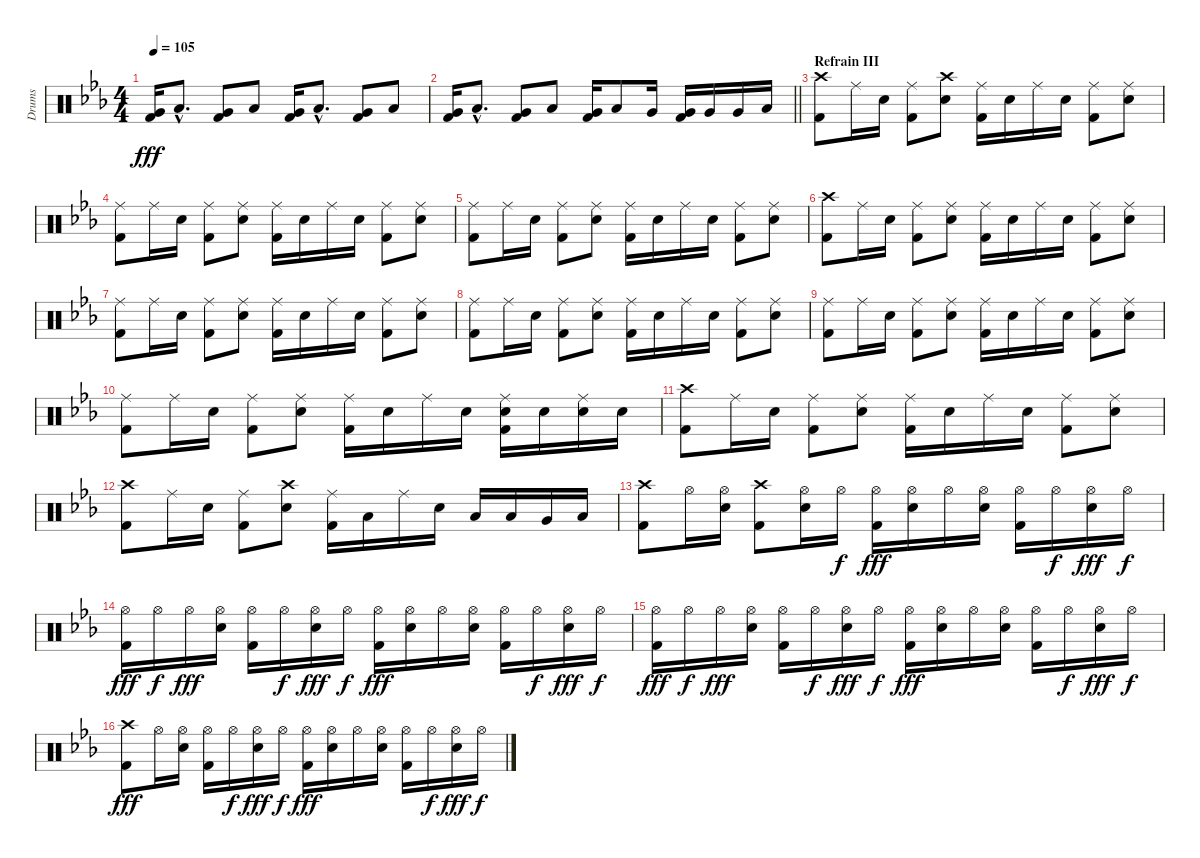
\track ("Drums" "Drums") {instrument percussion}
\staff {score}
\articulation defaults
\ts (4 4)
\tempo 105
\clef neutral
\ks eb
("Very Low Tom (hit)" "Kick (hit) 2").16{dy fff} "Low Floor Tom (hit)"{hac}.8{d} ("Very Low Tom (hit)" "Kick (hit) 2").8 "Low Floor Tom (hit)".8 ("Very Low Tom (hit)" "Kick (hit) 2").16 "Low Floor Tom (hit)"{hac}.8{d} ("Very Low Tom (hit)" "Kick (hit) 2").8 "Low Floor Tom (hit)".8 |
\barLineRight lightlight
("Very Low Tom (hit)" "Kick (hit) 2").16 "Low Floor Tom (hit)"{hac}.8{d} ("Very Low Tom (hit)" "Kick (hit) 2").8 "Low Floor Tom (hit)".8 ("Very Low Tom (hit)" "Kick (hit) 2").16 "Low Floor Tom (hit)".8 "Very Low Tom (hit)".16 ("Very Low Tom (hit)" "Kick (hit) 2").16 "Very Low Tom (hit)".16 "Very Low Tom (hit)".16 "Low Floor Tom (hit)".16 |
\section ("" "Refrain III")
("Crash high (hit)" "Kick (hit) 2").8 "Ride (middle)".16 "Snare (hit) 2".16 ("Ride (middle)" "Kick (hit) 2").8 ("Crash high (hit)" "Snare (hit) 2").8 ("Ride (middle)" "Kick (hit) 2").16 "Snare (hit) 2".16 "Ride (middle)".16 "Snare (hit) 2".16 ("Ride (middle)" "Kick (hit) 2").8 ("Ride (middle)" "Snare (hit) 2").8 |
("Ride (middle)" "Kick (hit) 2").8 "Ride (middle)".16 "Snare (hit) 2".16 ("Ride (middle)" "Kick (hit) 2").8 ("Ride (middle)" "Snare (hit) 2").8 ("Ride (middle)" "Kick (hit) 2").16 "Snare (hit) 2".16 "Ride (middle)".16 "Snare (hit) 2".16 ("Ride (middle)" "Kick (hit) 2").8 ("Ride (middle)" "Snare (hit) 2").8 |
("Ride (middle)" "Kick (hit) 2").8 "Ride (middle)".16 "Snare (hit) 2".16 ("Ride (middle)" "Kick (hit) 2").8 ("Ride (middle)" "Snare (hit) 2").8 ("Ride (middle)" "Kick (hit) 2").16 "Snare (hit) 2".16 "Ride (middle)".16 "Snare (hit) 2".16 ("Ride (middle)" "Kick (hit) 2").8 ("Ride (middle)" "Snare (hit) 2").8 |
("Crash high (hit)" "Kick (hit) 2").8 "Ride (middle)".16 "Snare (hit) 2".16 ("Ride (middle)" "Kick (hit) 2").8 ("Ride (middle)" "Snare (hit) 2").8 ("Ride (middle)" "Kick (hit) 2").16 "Snare (hit) 2".16 "Ride (middle)".16 "Snare (hit) 2".16 ("Ride (middle)" "Kick (hit) 2").8 ("Ride (middle)" "Snare (hit) 2").8 |
("Ride (middle)" "Kick (hit) 2").8 "Ride (middle)".16 "Snare (hit) 2".16 ("Ride (middle)" "Kick (hit) 2").8 ("Ride (middle)" "Snare (hit) 2").8 ("Ride (middle)" "Kick (hit) 2").16 "Snare (hit) 2".16 "Ride (middle)".16 "Snare (hit) 2".16 ("Ride (middle)" "Kick (hit) 2").8 ("Ride (middle)" "Snare (hit) 2").8 |
("Ride (middle)" "Kick (hit) 2").8 "Ride (middle)".16 "Snare (hit) 2".16 ("Ride (middle)" "Kick (hit) 2").8 ("Ride (middle)" "Snare (hit) 2").8 ("Ride (middle)" "Kick (hit) 2").16 "Snare (hit) 2".16 "Ride (middle)".16 "Snare (hit) 2".16 ("Ride (middle)" "Kick (hit) 2").8 ("Ride (middle)" "Snare (hit) 2").8 |
("Ride (middle)" "Kick (hit) 2").8 "Ride (middle)".16 "Snare (hit) 2".16 ("Ride (middle)" "Kick (hit) 2").8 ("Ride (middle)" "Snare (hit) 2").8 ("Ride (middle)" "Kick (hit) 2").16 "Snare (hit) 2".16 "Ride (middle)".16 "Snare (hit) 2".16 ("Ride (middle)" "Kick (hit) 2").8 ("Ride (middle)" "Snare (hit) 2").8 |
("Ride (middle)" "Kick (hit) 2").8 "Ride (middle)".16 "Snare (hit) 2".16 ("Ride (middle)" "Kick (hit) 2").8 ("Ride (middle)" "Snare (hit) 2").8 ("Ride (middle)" "Kick (hit) 2").16 "Snare (hit) 2".16 "Ride (middle)".16 "Snare (hit) 2".16 ("Ride (middle)" "Snare (hit) 2" "Kick (hit) 2").16 "Snare (hit) 2".16 ("Ride (middle)" "Snare (hit) 2").16 "Snare (hit) 2".16 |
("Crash high (hit)" "Kick (hit) 2").8 "Ride (middle)".16 "Snare (hit) 2".16 ("Ride (middle)" "Kick (hit) 2").8 ("Ride (middle)" "Snare (hit) 2").8 ("Ride (middle)" "Kick (hit) 2").16 "Snare (hit) 2".16 "Ride (middle)".16 "Snare (hit) 2".16 ("Ride (middle)" "Kick (hit) 2").8 ("Ride (middle)" "Snare (hit) 2").8 |
("Crash high (hit)" "Kick (hit) 2").8 "Ride (middle)".16 "Snare (hit) 2".16 ("Ride (middle)" "Kick (hit) 2").8 ("Crash high (hit)" "Snare (hit) 2").8 ("Ride (middle)" "Kick (hit) 2").16 "Low Tom (hit)".16 "Ride (middle)".16 "Snare (hit) 2".16 "Low Tom (hit)".16 "Low Tom (hit)".16 "Very Low Tom (hit)".16 "Low Floor Tom (hit)".16 |
("Crash high (hit)" "Kick (hit) 2").8 "Hi-Hat (open)".16 ("Hi-Hat (open)" "Snare (hit) 2").16 ("Crash high (hit)" "Kick (hit) 2").8 ("Hi-Hat (open)" "Snare (hit) 2").16 "Hi-Hat (open)".16{dy f} ("Hi-Hat (open)" "Kick (hit) 2").16{dy fff} ("Hi-Hat (open)" "Snare (hit) 2").16 "Hi-Hat (open)".16 ("Hi-Hat (open)" "Snare (hit) 2").16 ("Hi-Hat (open)" "Kick (hit) 2").16 "Hi-Hat (open)".16{dy f} ("Hi-Hat (open)" "Snare (hit) 2").16{dy fff} "Hi-Hat (open)".16{dy f} |
("Hi-Hat (open)" "Kick (hit) 2").16{dy fff} "Hi-Hat (open)".16{dy f} "Hi-Hat (open)".16{dy fff} ("Hi-Hat (open)" "Snare (hit) 2").16 ("Hi-Hat (open)" "Kick (hit) 2").16 "Hi-Hat (open)".16{dy f} ("Hi-Hat (open)" "Snare (hit) 2").16{dy fff} "Hi-Hat (open)".16{dy f} ("Hi-Hat (open)" "Kick (hit) 2").16{dy fff} ("Hi-Hat (open)" "Snare (hit) 2").16 "Hi-Hat (open)".16 ("Hi-Hat (open)" "Snare (hit) 2").16 ("Hi-Hat (open)" "Kick (hit) 2").16 "Hi-Hat (open)".16{dy f} ("Hi-Hat (open)" "Snare (hit) 2").16{dy fff} "Hi-Hat (open)".16{dy f} |
("Hi-Hat (open)" "Kick (hit) 2").16{dy fff} "Hi-Hat (open)".16{dy f} "Hi-Hat (open)".16{dy fff} ("Hi-Hat (open)" "Snare (hit) 2").16 ("Hi-Hat (open)" "Kick (hit) 2").16 "Hi-Hat (open)".16{dy f} ("Hi-Hat (open)" "Snare (hit) 2").16{dy fff} "Hi-Hat (open)".16{dy f} ("Hi-Hat (open)" "Kick (hit) 2").16{dy fff} ("Hi-Hat (open)" "Snare (hit) 2").16 "Hi-Hat (open)".16 ("Hi-Hat (open)" "Snare (hit) 2").16 ("Hi-Hat (open)" "Kick (hit) 2").16 "Hi-Hat (open)".16{dy f} ("Hi-Hat (open)" "Snare (hit) 2").16{dy fff} "Hi-Hat (open)".16{dy f} |
("Crash high (hit)" "Kick (hit) 2").8{dy fff} "Hi-Hat (open)".16 ("Hi-Hat (open)" "Snare (hit) 2").16 ("Hi-Hat (open)" "Kick (hit) 2").16 "Hi-Hat (open)".16{dy f} ("Hi-Hat (open)" "Snare (hit) 2").16{dy fff} "Hi-Hat (open)".16{dy f} ("Hi-Hat (open)" "Kick (hit) 2").16{dy fff} ("Hi-Hat (open)" "Snare (hit) 2").16 "Hi-Hat (open)".16 ("Hi-Hat (open)" "Snare (hit) 2").16 ("Hi-Hat (open)" "Kick (hit) 2").16 "Hi-Hat (open)".16{dy f} ("Hi-Hat (open)" "Snare (hit) 2").16{dy fff} "Hi-Hat (open)".16{dy f}
